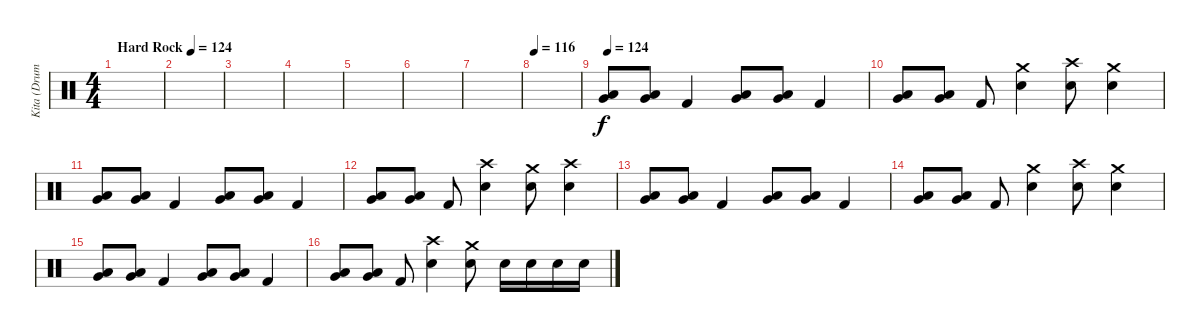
\track ("Kita (Drums)" "Kita (Drum") {instrument percussion}
\staff {score}
\articulation defaults
\ts (4 4)
\tempo (124 "Hard Rock")
\clef neutral
\ks c
|
|
|
|
|
|
|
\tempo 116
|
\tempo 124
("Very Low Tom (hit)" "Low Tom (hit)").8{bd 120} ("Very Low Tom (hit)" "Low Tom (hit)").8{bd 120} "Kick (hit) 2".4 ("Low Floor Tom (hit)" "Very Low Tom (hit)").8{bd 120} ("Low Floor Tom (hit)" "Very Low Tom (hit)").8{bd 120} "Kick (hit) 2".4 |
("Very Low Tom (hit)" "Low Tom (hit)").8{bd 120} ("Very Low Tom (hit)" "Low Tom (hit)").8{bd 120} "Kick (hit) 2".8 ("Crash medium (hit)" "Electric Snare (hit)").4 ("Crash high (hit)" "Electric Snare (hit)").8 ("Crash medium (hit)" "Electric Snare (hit)").4 |
("Very Low Tom (hit)" "Low Tom (hit)").8{bd 120} ("Very Low Tom (hit)" "Low Tom (hit)").8{bd 120} "Kick (hit) 2".4 ("Low Floor Tom (hit)" "Very Low Tom (hit)").8{bd 120} ("Low Floor Tom (hit)" "Very Low Tom (hit)").8{bd 120} "Kick (hit) 2".4 |
("Very Low Tom (hit)" "Low Tom (hit)").8{bd 120} ("Very Low Tom (hit)" "Low Tom (hit)").8{bd 120} "Kick (hit) 2".8 ("Crash high (hit)" "Electric Snare (hit)").4 ("Crash medium (hit)" "Electric Snare (hit)").8 ("Crash high (hit)" "Electric Snare (hit)").4 |
("Very Low Tom (hit)" "Low Tom (hit)").8{bd 120} ("Very Low Tom (hit)" "Low Tom (hit)").8{bd 120} "Kick (hit) 2".4 ("Low Floor Tom (hit)" "Very Low Tom (hit)").8{bd 120} ("Low Floor Tom (hit)" "Very Low Tom (hit)").8{bd 120} "Kick (hit) 2".4 |
("Very Low Tom (hit)" "Low Tom (hit)").8{bd 120} ("Very Low Tom (hit)" "Low Tom (hit)").8{bd 120} "Kick (hit) 2".8 ("Crash medium (hit)" "Electric Snare (hit)").4 ("Crash high (hit)" "Electric Snare (hit)").8 ("Crash medium (hit)" "Electric Snare (hit)").4 |
("Very Low Tom (hit)" "Low Tom (hit)").8{bd 120} ("Very Low Tom (hit)" "Low Tom (hit)").8{bd 120} "Kick (hit) 2".4 ("Low Floor Tom (hit)" "Very Low Tom (hit)").8{bd 120} ("Low Floor Tom (hit)" "Very Low Tom (hit)").8{bd 120} "Kick (hit) 2".4 |
("Very Low Tom (hit)" "Low Tom (hit)").8{bd 120} ("Very Low Tom (hit)" "Low Tom (hit)").8{bd 120} "Kick (hit) 2".8 ("Crash high (hit)" "Electric Snare (hit)").4 ("Crash medium (hit)" "Electric Snare (hit)").8 "Electric Snare (hit)".16 "Electric Snare (hit)".16 "Electric Snare (hit)".16 "Electric Snare (hit)".16
